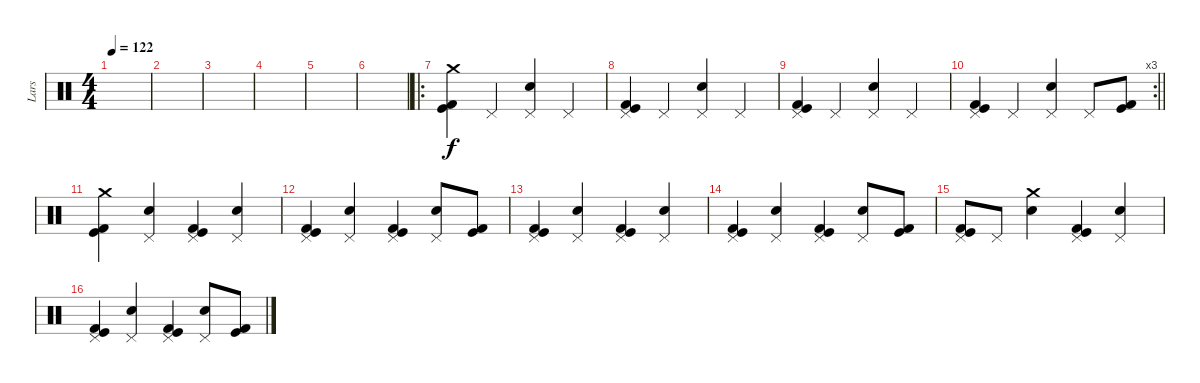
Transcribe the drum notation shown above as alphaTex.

\track ("Lars" "Lars") {instrument percussion}
\staff {score}
\articulation defaults
\ts (4 4)
\tempo 122
\clef neutral
\ks aminor
|
|
|
|
|
|
\ro
("Crash medium (hit)" "Kick (hit)" "Kick (hit) 2").4 "Pedal Hi-Hat (hit)".4 ("Pedal Hi-Hat (hit)" "Electric Snare (hit)").4 "Pedal Hi-Hat (hit)".4 |
("Pedal Hi-Hat (hit)" "Kick (hit)" "Kick (hit) 2").4 "Pedal Hi-Hat (hit)".4 ("Pedal Hi-Hat (hit)" "Electric Snare (hit)").4 "Pedal Hi-Hat (hit)".4 |
("Pedal Hi-Hat (hit)" "Kick (hit)" "Kick (hit) 2").4 "Pedal Hi-Hat (hit)".4 ("Pedal Hi-Hat (hit)" "Electric Snare (hit)").4 "Pedal Hi-Hat (hit)".4 |
\rc 3
\barLineRight lightlight
("Pedal Hi-Hat (hit)" "Kick (hit)" "Kick (hit) 2").4 "Pedal Hi-Hat (hit)".4 ("Pedal Hi-Hat (hit)" "Electric Snare (hit)").4 "Pedal Hi-Hat (hit)".8 ("Kick (hit)" "Kick (hit) 2").8 |
("Crash medium (hit)" "Kick (hit)" "Kick (hit) 2").4 ("Pedal Hi-Hat (hit)" "Electric Snare (hit)").4 ("Pedal Hi-Hat (hit)" "Kick (hit)" "Kick (hit) 2").4 ("Pedal Hi-Hat (hit)" "Electric Snare (hit)").4 |
("Pedal Hi-Hat (hit)" "Kick (hit)" "Kick (hit) 2").4 ("Pedal Hi-Hat (hit)" "Electric Snare (hit)").4 ("Pedal Hi-Hat (hit)" "Kick (hit)" "Kick (hit) 2").4 ("Pedal Hi-Hat (hit)" "Electric Snare (hit)").8 ("Kick (hit)" "Kick (hit) 2").8 |
("Pedal Hi-Hat (hit)" "Kick (hit)" "Kick (hit) 2").4 ("Pedal Hi-Hat (hit)" "Electric Snare (hit)").4 ("Pedal Hi-Hat (hit)" "Kick (hit)" "Kick (hit) 2").4 ("Pedal Hi-Hat (hit)" "Electric Snare (hit)").4 |
("Pedal Hi-Hat (hit)" "Kick (hit)" "Kick (hit) 2").4 ("Pedal Hi-Hat (hit)" "Electric Snare (hit)").4 ("Pedal Hi-Hat (hit)" "Kick (hit)" "Kick (hit) 2").4 ("Pedal Hi-Hat (hit)" "Electric Snare (hit)").8 ("Kick (hit)" "Kick (hit) 2").8 |
("Pedal Hi-Hat (hit)" "Kick (hit)" "Kick (hit) 2").8 "Pedal Hi-Hat (hit)".8 ("Crash medium (hit)" "Electric Snare (hit)").4 ("Pedal Hi-Hat (hit)" "Kick (hit)" "Kick (hit) 2").4 ("Pedal Hi-Hat (hit)" "Electric Snare (hit)").4 |
("Pedal Hi-Hat (hit)" "Kick (hit)" "Kick (hit) 2").4 ("Pedal Hi-Hat (hit)" "Electric Snare (hit)").4 ("Pedal Hi-Hat (hit)" "Kick (hit)" "Kick (hit) 2").4 ("Pedal Hi-Hat (hit)" "Electric Snare (hit)").8 ("Kick (hit)" "Kick (hit) 2").8
